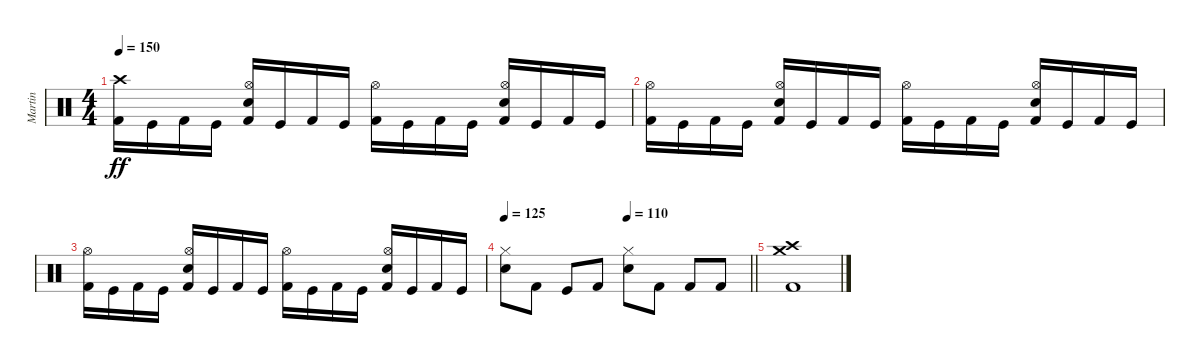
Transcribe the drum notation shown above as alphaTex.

\track ("Martin" "Martin") {instrument percussion}
\staff {score}
\articulation defaults
\ts (4 4)
\tempo 150
\clef neutral
\ks c
("Crash high (hit)" "Kick (hit) 2").16{dy ff} "Kick (hit)".16 "Kick (hit) 2".16 "Kick (hit)".16 ("Hi-Hat (open)" "Electric Snare (hit)" "Kick (hit) 2").16 "Kick (hit)".16 "Kick (hit) 2".16 "Kick (hit)".16 ("Hi-Hat (open)" "Kick (hit) 2").16 "Kick (hit)".16 "Kick (hit) 2".16 "Kick (hit)".16 ("Hi-Hat (open)" "Electric Snare (hit)" "Kick (hit) 2").16 "Kick (hit)".16 "Kick (hit) 2".16 "Kick (hit)".16 |
("Hi-Hat (open)" "Kick (hit) 2").16 "Kick (hit)".16 "Kick (hit) 2".16 "Kick (hit)".16 ("Hi-Hat (open)" "Electric Snare (hit)" "Kick (hit) 2").16 "Kick (hit)".16 "Kick (hit) 2".16 "Kick (hit)".16 ("Hi-Hat (open)" "Kick (hit) 2").16 "Kick (hit)".16 "Kick (hit) 2".16 "Kick (hit)".16 ("Hi-Hat (open)" "Electric Snare (hit)" "Kick (hit) 2").16 "Kick (hit)".16 "Kick (hit) 2".16 "Kick (hit)".16 |
("Hi-Hat (open)" "Kick (hit) 2").16 "Kick (hit)".16 "Kick (hit) 2".16 "Kick (hit)".16 ("Hi-Hat (open)" "Electric Snare (hit)" "Kick (hit) 2").16 "Kick (hit)".16 "Kick (hit) 2".16 "Kick (hit)".16 ("Hi-Hat (open)" "Kick (hit) 2").16 "Kick (hit)".16 "Kick (hit) 2".16 "Kick (hit)".16 ("Hi-Hat (open)" "Electric Snare (hit)" "Kick (hit) 2").16 "Kick (hit)".16 "Kick (hit) 2".16 "Kick (hit)".16 |
\tempo 125
\tempo (110 0.5)
\barLineRight lightlight
("Hi-Hat (closed)" "Electric Snare (hit)").8 "Kick (hit) 2".8 "Kick (hit)".8 "Kick (hit) 2".8 ("Hi-Hat (closed)" "Electric Snare (hit)").8 "Kick (hit) 2".8 "Kick (hit) 2".8 "Kick (hit) 2".8 |
("Crash high (hit)" "Crash medium (hit)" "Kick (hit) 2").1
